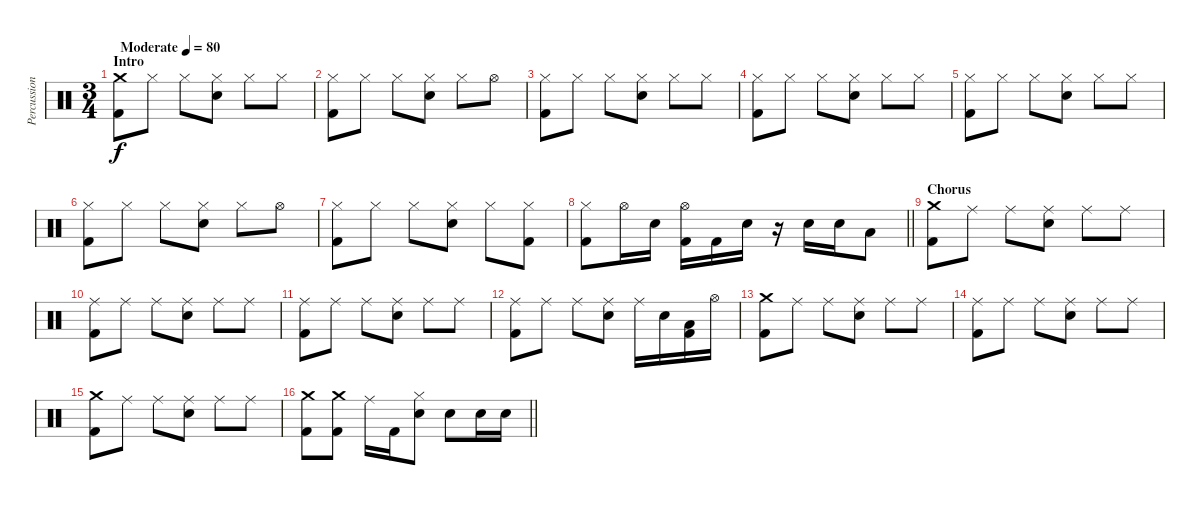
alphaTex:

\track ("Percussion" "Percussion") {instrument percussion}
\staff {score}
\articulation defaults
\ts (3 4)
\section ("" "Intro")
\tempo (80 "Moderate")
\clef neutral
\ks c
("Crash medium (hit)" "Kick (hit) 2").8{dy f} "Hi-Hat (closed)".8 "Hi-Hat (closed)".8 ("Hi-Hat (closed)" "Snare (hit) 2").8 "Hi-Hat (closed)".8 "Hi-Hat (closed)".8 |
("Hi-Hat (closed)" "Kick (hit) 2").8 "Hi-Hat (closed)".8 "Hi-Hat (closed)".8 ("Hi-Hat (closed)" "Snare (hit) 2").8 "Hi-Hat (closed)".8 "Hi-Hat (open)".8 |
("Hi-Hat (closed)" "Kick (hit) 2").8 "Hi-Hat (closed)".8 "Hi-Hat (closed)".8 ("Hi-Hat (closed)" "Snare (hit) 2").8 "Hi-Hat (closed)".8 "Hi-Hat (closed)".8 |
("Hi-Hat (closed)" "Kick (hit) 2").8 "Hi-Hat (closed)".8 "Hi-Hat (closed)".8 ("Hi-Hat (closed)" "Snare (hit) 2").8 "Hi-Hat (closed)".8 "Hi-Hat (closed)".8 |
("Hi-Hat (closed)" "Kick (hit) 2").8 "Hi-Hat (closed)".8 "Hi-Hat (closed)".8 ("Hi-Hat (closed)" "Snare (hit) 2").8 "Hi-Hat (closed)".8 "Hi-Hat (closed)".8 |
("Hi-Hat (closed)" "Kick (hit) 2").8 "Hi-Hat (closed)".8 "Hi-Hat (closed)".8 ("Hi-Hat (closed)" "Snare (hit) 2").8 "Hi-Hat (closed)".8 "Hi-Hat (open)".8 |
("Hi-Hat (closed)" "Kick (hit) 2").8 "Hi-Hat (closed)".8 "Hi-Hat (closed)".8 ("Hi-Hat (closed)" "Snare (hit) 2").8 "Hi-Hat (closed)".8 ("Hi-Hat (closed)" "Kick (hit) 2").8 |
\barLineRight lightlight
("Hi-Hat (closed)" "Kick (hit) 2").8 "Hi-Hat (open)".16 "Snare (hit) 2".16 ("Hi-Hat (open)" "Kick (hit) 2").16 "Kick (hit) 2".16 "Snare (hit) 2".16 r.16 "Snare (hit) 2".16 "Snare (hit) 2".16 "Low Tom (hit)".8 |
\section ("" "Chorus")
("Crash medium (hit)" "Kick (hit) 2").8 "Ride (middle)".8 "Ride (middle)".8 ("Ride (middle)" "Snare (hit) 2").8 "Ride (middle)".8 "Ride (middle)".8 |
("Ride (middle)" "Kick (hit) 2").8 "Ride (middle)".8 "Ride (middle)".8 ("Ride (middle)" "Snare (hit) 2").8 "Ride (middle)".8 "Ride (middle)".8 |
("Ride (middle)" "Kick (hit) 2").8 "Ride (middle)".8 "Ride (middle)".8 ("Ride (middle)" "Snare (hit) 2").8 "Ride (middle)".8 "Ride (middle)".8 |
("Ride (middle)" "Kick (hit) 2").8 "Ride (middle)".8 "Ride (middle)".8 ("Ride (middle)" "Snare (hit) 2").8 "Ride (middle)".16 "Snare (hit) 2".16 ("Low Tom (hit)" "Kick (hit) 2").16 "Hi-Hat (open)".16 |
("Crash medium (hit)" "Kick (hit) 2").8 "Ride (middle)".8 "Ride (middle)".8 ("Ride (middle)" "Snare (hit) 2").8 "Ride (middle)".8 "Ride (middle)".8 |
("Ride (middle)" "Kick (hit) 2").8 "Ride (middle)".8 "Ride (middle)".8 ("Ride (middle)" "Snare (hit) 2").8 "Ride (middle)".8 "Ride (middle)".8 |
("Crash medium (hit)" "Kick (hit) 2").8 "Ride (middle)".8 "Ride (middle)".8 ("Ride (middle)" "Snare (hit) 2").8 "Ride (middle)".8 "Ride (middle)".8 |
\barLineRight lightlight
("Crash medium (hit)" "Kick (hit) 2").8 ("Crash medium (hit)" "Kick (hit) 2").8 "Ride (middle)".16 "Kick (hit) 2".16 ("Hi-Hat (closed)" "Snare (hit) 2").8 "Snare (hit) 2".8 "Snare (hit) 2".16 "Snare (hit) 2".16
